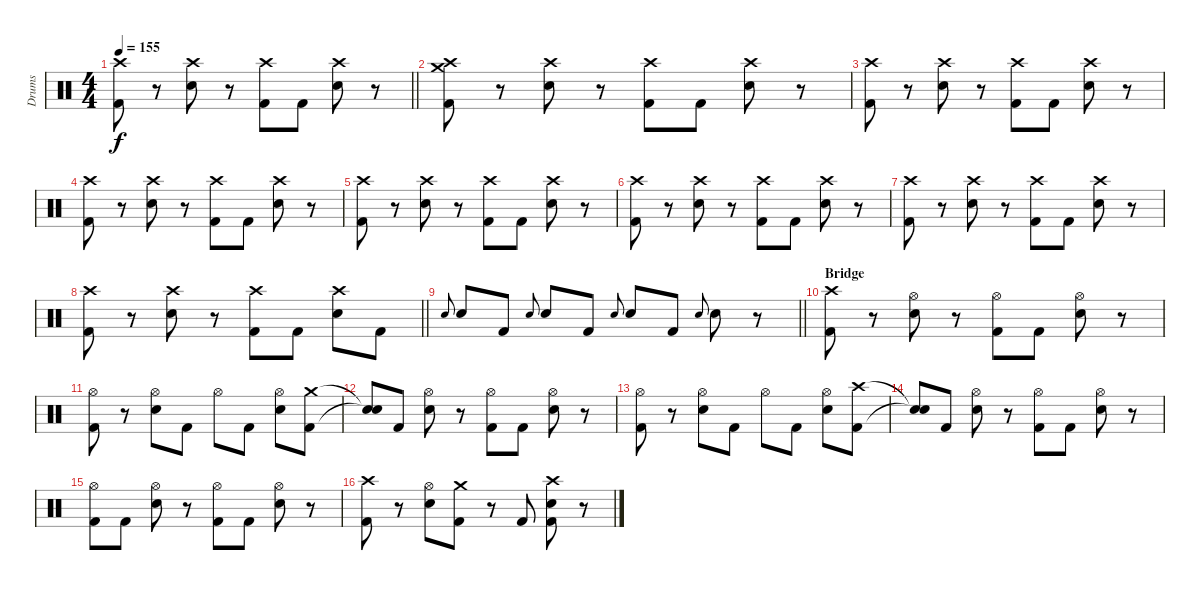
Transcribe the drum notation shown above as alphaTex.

\track ("Drums" "Drums") {instrument percussion}
\staff {score}
\articulation defaults
\ts (4 4)
\tempo 155
\clef neutral
\barLineRight lightlight
\ks c
("Crash high (hit)" "Kick (hit) 2").8{dy f} r.8 ("Crash high (hit)" "Electric Snare (hit)").8 r.8 ("Crash high (hit)" "Kick (hit) 2").8 "Kick (hit) 2".8 ("Crash high (hit)" "Electric Snare (hit)").8 r.8 |
("Crash medium (hit)" "Crash high (hit)" "Kick (hit) 2").8 r.8 ("Crash high (hit)" "Electric Snare (hit)").8 r.8 ("Crash high (hit)" "Kick (hit) 2").8 "Kick (hit) 2".8 ("Crash high (hit)" "Electric Snare (hit)").8 r.8 |
("Crash high (hit)" "Kick (hit) 2").8 r.8 ("Crash high (hit)" "Electric Snare (hit)").8 r.8 ("Crash high (hit)" "Kick (hit) 2").8 "Kick (hit) 2".8 ("Crash high (hit)" "Electric Snare (hit)").8 r.8 |
("Crash high (hit)" "Kick (hit) 2").8 r.8 ("Crash high (hit)" "Electric Snare (hit)").8 r.8 ("Crash high (hit)" "Kick (hit) 2").8 "Kick (hit) 2".8 ("Crash high (hit)" "Electric Snare (hit)").8 r.8 |
("Crash high (hit)" "Kick (hit) 2").8 r.8 ("Crash high (hit)" "Electric Snare (hit)").8 r.8 ("Crash high (hit)" "Kick (hit) 2").8 "Kick (hit) 2".8 ("Crash high (hit)" "Electric Snare (hit)").8 r.8 |
("Crash high (hit)" "Kick (hit) 2").8 r.8 ("Crash high (hit)" "Electric Snare (hit)").8 r.8 ("Crash high (hit)" "Kick (hit) 2").8 "Kick (hit) 2".8 ("Crash high (hit)" "Electric Snare (hit)").8 r.8 |
("Crash high (hit)" "Kick (hit) 2").8 r.8 ("Crash high (hit)" "Electric Snare (hit)").8 r.8 ("Crash high (hit)" "Kick (hit) 2").8 "Kick (hit) 2".8 ("Crash high (hit)" "Electric Snare (hit)").8 r.8 |
\barLineRight lightlight
("Crash high (hit)" "Kick (hit) 2").8 r.8 ("Crash high (hit)" "Electric Snare (hit)").8 r.8 ("Crash high (hit)" "Kick (hit) 2").8 "Kick (hit) 2".8 ("Crash high (hit)" "Electric Snare (hit)").8 "Kick (hit) 2".8 |
\barLineRight lightlight "Electric Snare (hit)".8{gr onbeat} "Electric Snare (hit)".8 "Kick (hit) 2".8 "Electric Snare (hit)".8{gr onbeat} "Electric Snare (hit)".8 "Kick (hit) 2".8 "Electric Snare (hit)".8{gr onbeat} "Electric Snare (hit)".8 "Kick (hit) 2".8 "Electric Snare (hit)".8{gr onbeat} "Electric Snare (hit)".8
r.8 |
\section ("" "Bridge")
("Crash high (hit)" "Kick (hit) 2").8 r.8 ("Hi-Hat (open)" "Electric Snare (hit)").8 r.8 ("Hi-Hat (open)" "Kick (hit) 2").8 "Kick (hit) 2".8 ("Hi-Hat (open)" "Electric Snare (hit)").8 r.8 |
("Hi-Hat (open)" "Kick (hit) 2").8 r.8 ("Hi-Hat (open)" "Electric Snare (hit)").8 "Kick (hit) 2".8 "Hi-Hat (open)".8 "Kick (hit) 2".8 ("Hi-Hat (open)" "Electric Snare (hit)").8 ("Crash medium (hit)" "Kick (hit) 2").8 |
("Snare (hit)"{t} "Snare (hit)"{t}).8 "Kick (hit) 2".8 ("Hi-Hat (open)" "Electric Snare (hit)").8 r.8 ("Hi-Hat (open)" "Kick (hit) 2").8 "Kick (hit) 2".8 ("Hi-Hat (open)" "Electric Snare (hit)").8 r.8 |
("Hi-Hat (open)" "Kick (hit) 2").8 r.8 ("Hi-Hat (open)" "Electric Snare (hit)").8 "Kick (hit) 2".8 "Hi-Hat (open)".8 "Kick (hit) 2".8 ("Hi-Hat (open)" "Electric Snare (hit)").8 ("Crash high (hit)" "Kick (hit) 2").8 |
("Snare (hit)"{t} "Snare (hit)"{t}).8 "Kick (hit) 2".8 ("Hi-Hat (open)" "Electric Snare (hit)").8 r.8 ("Hi-Hat (open)" "Kick (hit) 2").8 "Kick (hit) 2".8 ("Hi-Hat (open)" "Electric Snare (hit)").8 r.8 |
("Hi-Hat (open)" "Kick (hit) 2").8 "Kick (hit) 2".8 ("Hi-Hat (open)" "Electric Snare (hit)").8 r.8 ("Hi-Hat (open)" "Kick (hit) 2").8 "Kick (hit) 2".8 ("Hi-Hat (open)" "Electric Snare (hit)").8 r.8 |
("Crash high (hit)" "Kick (hit) 2").8 r.8 ("Hi-Hat (open)" "Electric Snare (hit)").8 ("Crash medium (hit)" "Kick (hit) 2").8 r.8 "Kick (hit) 2".8 ("Crash high (hit)" "Electric Snare (hit)" "Kick (hit) 2").8 r.8
